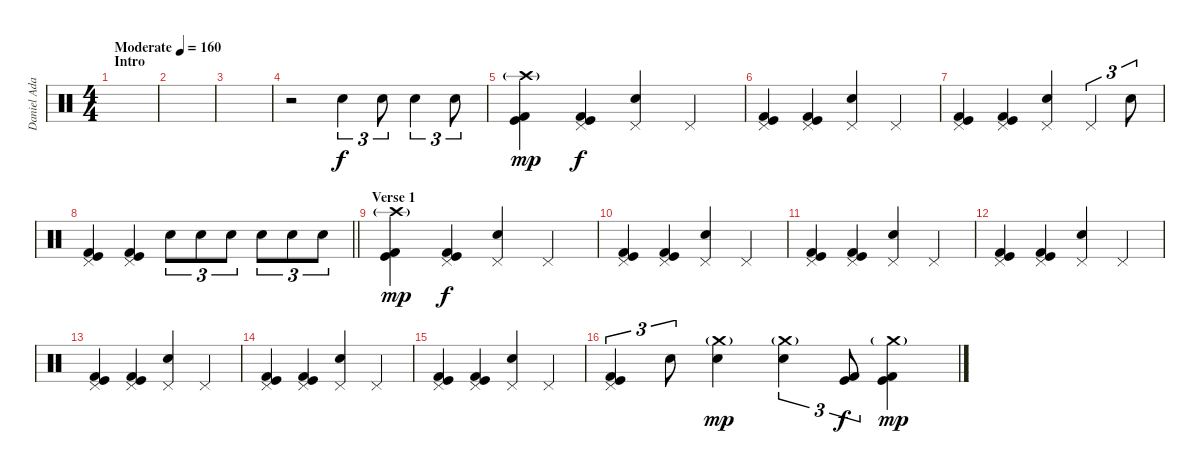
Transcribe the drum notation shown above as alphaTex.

\track ("Daniel Adair" "Daniel Ada") {instrument percussion}
\staff {score}
\articulation defaults
\ts (4 4)
\section ("" "Intro")
\tempo (160 "Moderate")
\clef neutral
\ks c
|
|
|
r.2 "Electric Snare (hit)".4{tu (3 2)} "Electric Snare (hit)".8{tu (3 2)} "Electric Snare (hit)".4{tu (3 2)} "Electric Snare (hit)".8{tu (3 2)} |
("Crash high (hit)"{g} "Kick (hit)" "Kick (hit) 2").4{dy mp} ("Pedal Hi-Hat (hit)" "Kick (hit)" "Kick (hit) 2").4{dy f} ("Pedal Hi-Hat (hit)" "Electric Snare (hit)").4 "Pedal Hi-Hat (hit)".4 |
("Pedal Hi-Hat (hit)" "Kick (hit)" "Kick (hit) 2").4 ("Pedal Hi-Hat (hit)" "Kick (hit)" "Kick (hit) 2").4 ("Pedal Hi-Hat (hit)" "Electric Snare (hit)").4 "Pedal Hi-Hat (hit)".4 |
("Pedal Hi-Hat (hit)" "Kick (hit)" "Kick (hit) 2").4 ("Pedal Hi-Hat (hit)" "Kick (hit)" "Kick (hit) 2").4 ("Pedal Hi-Hat (hit)" "Electric Snare (hit)").4 "Pedal Hi-Hat (hit)".4{tu (3 2)} "Electric Snare (hit)".8{tu (3 2)} |
\barLineRight lightlight
("Pedal Hi-Hat (hit)" "Kick (hit)" "Kick (hit) 2").4 ("Pedal Hi-Hat (hit)" "Kick (hit)" "Kick (hit) 2").4 "Electric Snare (hit)".8{tu (3 2)} "Electric Snare (hit)".8{tu (3 2)} "Electric Snare (hit)".8{tu (3 2)} "Electric Snare (hit)".8{tu (3 2)} "Electric Snare (hit)".8{tu (3 2)} "Electric Snare (hit)".8{tu (3 2)} |
\section ("" "Verse 1")
("Crash high (hit)"{g} "Kick (hit)" "Kick (hit) 2").4{dy mp} ("Pedal Hi-Hat (hit)" "Kick (hit)" "Kick (hit) 2").4{dy f} ("Pedal Hi-Hat (hit)" "Electric Snare (hit)").4 "Pedal Hi-Hat (hit)".4 |
("Pedal Hi-Hat (hit)" "Kick (hit)" "Kick (hit) 2").4 ("Pedal Hi-Hat (hit)" "Kick (hit)" "Kick (hit) 2").4 ("Pedal Hi-Hat (hit)" "Electric Snare (hit)").4 "Pedal Hi-Hat (hit)".4 |
("Pedal Hi-Hat (hit)" "Kick (hit)" "Kick (hit) 2").4 ("Pedal Hi-Hat (hit)" "Kick (hit)" "Kick (hit) 2").4 ("Pedal Hi-Hat (hit)" "Electric Snare (hit)").4 "Pedal Hi-Hat (hit)".4 |
("Pedal Hi-Hat (hit)" "Kick (hit)" "Kick (hit) 2").4 ("Pedal Hi-Hat (hit)" "Kick (hit)" "Kick (hit) 2").4 ("Pedal Hi-Hat (hit)" "Electric Snare (hit)").4 "Pedal Hi-Hat (hit)".4 |
("Pedal Hi-Hat (hit)" "Kick (hit)" "Kick (hit) 2").4 ("Pedal Hi-Hat (hit)" "Kick (hit)" "Kick (hit) 2").4 ("Pedal Hi-Hat (hit)" "Electric Snare (hit)").4 "Pedal Hi-Hat (hit)".4 |
("Pedal Hi-Hat (hit)" "Kick (hit)" "Kick (hit) 2").4 ("Pedal Hi-Hat (hit)" "Kick (hit)" "Kick (hit) 2").4 ("Pedal Hi-Hat (hit)" "Electric Snare (hit)").4 "Pedal Hi-Hat (hit)".4 |
("Pedal Hi-Hat (hit)" "Kick (hit)" "Kick (hit) 2").4 ("Pedal Hi-Hat (hit)" "Kick (hit)" "Kick (hit) 2").4 ("Pedal Hi-Hat (hit)" "Electric Snare (hit)").4 "Pedal Hi-Hat (hit)".4 |
("Pedal Hi-Hat (hit)" "Kick (hit)" "Kick (hit) 2").4{tu (3 2)} "Electric Snare (hit)".8{tu (3 2)} ("Crash medium (hit)"{g} "Electric Snare (hit)").4{dy mp} ("Crash medium (hit)"{g} "Electric Snare (hit)").4{tu (3 2)} ("Kick (hit)" "Kick (hit) 2").8{tu (3 2) dy f} ("Crash medium (hit)"{g} "Kick (hit)" "Kick (hit) 2").4{dy mp}
